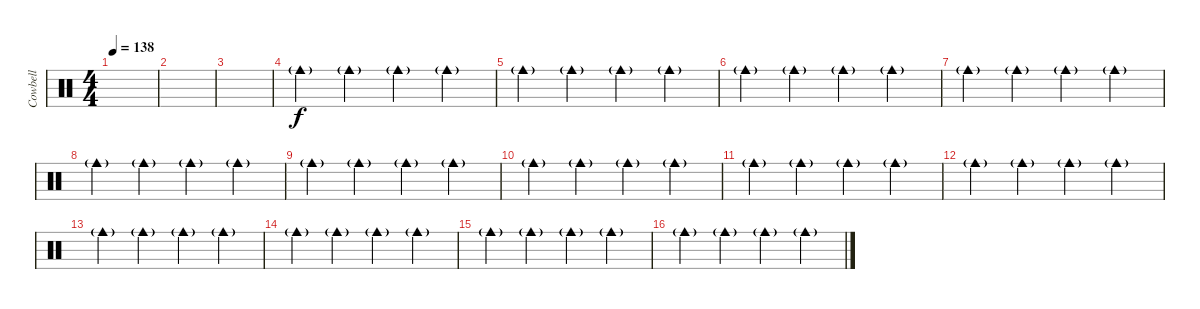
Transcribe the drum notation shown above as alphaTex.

\track ("Cowbell" "Cowbell") {instrument percussion}
\staff {score}
\articulation defaults
\ts (4 4)
\tempo 138
\clef neutral
\ks c
|
|
|
"Cowbell medium (hit)"{g}.4 "Cowbell medium (hit)"{g}.4 "Cowbell medium (hit)"{g}.4 "Cowbell medium (hit)"{g}.4 |
"Cowbell medium (hit)"{g}.4 "Cowbell medium (hit)"{g}.4 "Cowbell medium (hit)"{g}.4 "Cowbell medium (hit)"{g}.4 |
"Cowbell medium (hit)"{g}.4 "Cowbell medium (hit)"{g}.4 "Cowbell medium (hit)"{g}.4 "Cowbell medium (hit)"{g}.4 |
"Cowbell medium (hit)"{g}.4 "Cowbell medium (hit)"{g}.4 "Cowbell medium (hit)"{g}.4 "Cowbell medium (hit)"{g}.4 |
"Cowbell medium (hit)"{g}.4 "Cowbell medium (hit)"{g}.4 "Cowbell medium (hit)"{g}.4 "Cowbell medium (hit)"{g}.4 |
"Cowbell medium (hit)"{g}.4 "Cowbell medium (hit)"{g}.4 "Cowbell medium (hit)"{g}.4 "Cowbell medium (hit)"{g}.4 |
"Cowbell medium (hit)"{g}.4 "Cowbell medium (hit)"{g}.4 "Cowbell medium (hit)"{g}.4 "Cowbell medium (hit)"{g}.4 |
"Cowbell medium (hit)"{g}.4 "Cowbell medium (hit)"{g}.4 "Cowbell medium (hit)"{g}.4 "Cowbell medium (hit)"{g}.4 |
"Cowbell medium (hit)"{g}.4 "Cowbell medium (hit)"{g}.4 "Cowbell medium (hit)"{g}.4 "Cowbell medium (hit)"{g}.4 |
"Cowbell medium (hit)"{g}.4 "Cowbell medium (hit)"{g}.4 "Cowbell medium (hit)"{g}.4 "Cowbell medium (hit)"{g}.4 |
"Cowbell medium (hit)"{g}.4 "Cowbell medium (hit)"{g}.4 "Cowbell medium (hit)"{g}.4 "Cowbell medium (hit)"{g}.4 |
"Cowbell medium (hit)"{g}.4 "Cowbell medium (hit)"{g}.4 "Cowbell medium (hit)"{g}.4 "Cowbell medium (hit)"{g}.4 |
"Cowbell medium (hit)"{g}.4 "Cowbell medium (hit)"{g}.4 "Cowbell medium (hit)"{g}.4 "Cowbell medium (hit)"{g}.4
